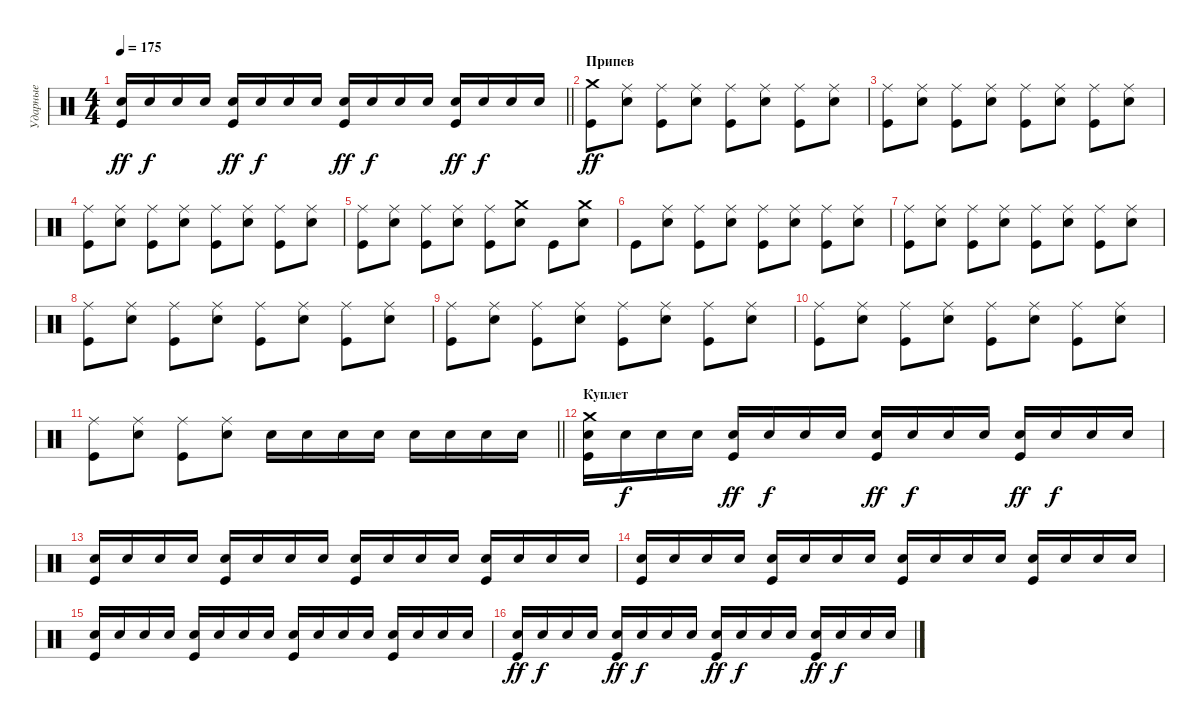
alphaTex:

\track ("Ударные" "Ударные") {instrument percussion}
\staff {score}
\articulation defaults
\ts (4 4)
\tempo 175
\clef neutral
\barLineRight lightlight
\ks c
("Electric Snare (hit)" "Kick (hit)").16{dy ff} "Electric Snare (hit)".16{dy f} "Electric Snare (hit)".16 "Electric Snare (hit)".16 ("Electric Snare (hit)" "Kick (hit)").16{dy ff} "Electric Snare (hit)".16{dy f} "Electric Snare (hit)".16 "Electric Snare (hit)".16 ("Electric Snare (hit)" "Kick (hit)").16{dy ff} "Electric Snare (hit)".16{dy f} "Electric Snare (hit)".16 "Electric Snare (hit)".16 ("Electric Snare (hit)" "Kick (hit)").16{dy ff} "Electric Snare (hit)".16{dy f} "Electric Snare (hit)".16 "Electric Snare (hit)".16 |
\section ("" "Припев")
("Crash medium (hit)" "Kick (hit)").8{dy ff} ("Ride (middle)" "Electric Snare (hit)").8 ("Ride (middle)" "Kick (hit)").8 ("Ride (middle)" "Electric Snare (hit)").8 ("Ride (middle)" "Kick (hit)").8 ("Ride (middle)" "Electric Snare (hit)").8 ("Ride (middle)" "Kick (hit)").8 ("Ride (middle)" "Electric Snare (hit)").8 |
("Ride (middle)" "Kick (hit)").8 ("Ride (middle)" "Electric Snare (hit)").8 ("Ride (middle)" "Kick (hit)").8 ("Ride (middle)" "Electric Snare (hit)").8 ("Ride (middle)" "Kick (hit)").8 ("Ride (middle)" "Electric Snare (hit)").8 ("Ride (middle)" "Kick (hit)").8 ("Ride (middle)" "Electric Snare (hit)").8 |
("Ride (middle)" "Kick (hit)").8 ("Ride (middle)" "Electric Snare (hit)").8 ("Ride (middle)" "Kick (hit)").8 ("Ride (middle)" "Electric Snare (hit)").8 ("Ride (middle)" "Kick (hit)").8 ("Ride (middle)" "Electric Snare (hit)").8 ("Ride (middle)" "Kick (hit)").8 ("Ride (middle)" "Electric Snare (hit)").8 |
("Ride (middle)" "Kick (hit)").8 ("Ride (middle)" "Electric Snare (hit)").8 ("Ride (middle)" "Kick (hit)").8 ("Ride (middle)" "Electric Snare (hit)").8 ("Ride (middle)" "Kick (hit)").8 ("Crash medium (hit)" "Electric Snare (hit)").8 "Kick (hit)".8 ("Crash medium (hit)" "Electric Snare (hit)").8 |
"Kick (hit)".8 ("Ride (middle)" "Electric Snare (hit)").8 ("Ride (middle)" "Kick (hit)").8 ("Ride (middle)" "Electric Snare (hit)").8 ("Ride (middle)" "Kick (hit)").8 ("Ride (middle)" "Electric Snare (hit)").8 ("Ride (middle)" "Kick (hit)").8 ("Ride (middle)" "Electric Snare (hit)").8 |
("Ride (middle)" "Kick (hit)").8 ("Ride (middle)" "Electric Snare (hit)").8 ("Ride (middle)" "Kick (hit)").8 ("Ride (middle)" "Electric Snare (hit)").8 ("Ride (middle)" "Kick (hit)").8 ("Ride (middle)" "Electric Snare (hit)").8 ("Ride (middle)" "Kick (hit)").8 ("Ride (middle)" "Electric Snare (hit)").8 |
("Ride (middle)" "Kick (hit)").8 ("Ride (middle)" "Electric Snare (hit)").8 ("Ride (middle)" "Kick (hit)").8 ("Ride (middle)" "Electric Snare (hit)").8 ("Ride (middle)" "Kick (hit)").8 ("Ride (middle)" "Electric Snare (hit)").8 ("Ride (middle)" "Kick (hit)").8 ("Ride (middle)" "Electric Snare (hit)").8 |
("Ride (middle)" "Kick (hit)").8 ("Ride (middle)" "Electric Snare (hit)").8 ("Ride (middle)" "Kick (hit)").8 ("Ride (middle)" "Electric Snare (hit)").8 ("Ride (middle)" "Kick (hit)").8 ("Ride (middle)" "Electric Snare (hit)").8 ("Ride (middle)" "Kick (hit)").8 ("Ride (middle)" "Electric Snare (hit)").8 |
("Ride (middle)" "Kick (hit)").8 ("Ride (middle)" "Electric Snare (hit)").8 ("Ride (middle)" "Kick (hit)").8 ("Ride (middle)" "Electric Snare (hit)").8 ("Ride (middle)" "Kick (hit)").8 ("Ride (middle)" "Electric Snare (hit)").8 ("Ride (middle)" "Kick (hit)").8 ("Ride (middle)" "Electric Snare (hit)").8 |
\barLineRight lightlight
("Ride (middle)" "Kick (hit)").8 ("Ride (middle)" "Electric Snare (hit)").8 ("Ride (middle)" "Kick (hit)").8 ("Ride (middle)" "Electric Snare (hit)").8 "Electric Snare (hit)".16 "Electric Snare (hit)".16 "Electric Snare (hit)".16 "Electric Snare (hit)".16 "Electric Snare (hit)".16 "Electric Snare (hit)".16 "Electric Snare (hit)".16 "Electric Snare (hit)".16 |
\section ("" "Куплет")
("Crash medium (hit)" "Electric Snare (hit)" "Kick (hit)").16 "Electric Snare (hit)".16{dy f} "Electric Snare (hit)".16 "Electric Snare (hit)".16 ("Electric Snare (hit)" "Kick (hit)").16{dy ff} "Electric Snare (hit)".16{dy f} "Electric Snare (hit)".16 "Electric Snare (hit)".16 ("Electric Snare (hit)" "Kick (hit)").16{dy ff} "Electric Snare (hit)".16{dy f} "Electric Snare (hit)".16 "Electric Snare (hit)".16 ("Electric Snare (hit)" "Kick (hit)").16{dy ff} "Electric Snare (hit)".16{dy f} "Electric Snare (hit)".16 "Electric Snare (hit)".16 |
("Electric Snare (hit)" "Kick (hit)").16 "Electric Snare (hit)".16 "Electric Snare (hit)".16 "Electric Snare (hit)".16 ("Electric Snare (hit)" "Kick (hit)").16 "Electric Snare (hit)".16 "Electric Snare (hit)".16 "Electric Snare (hit)".16 ("Electric Snare (hit)" "Kick (hit)").16 "Electric Snare (hit)".16 "Electric Snare (hit)".16 "Electric Snare (hit)".16 ("Electric Snare (hit)" "Kick (hit)").16 "Electric Snare (hit)".16 "Electric Snare (hit)".16 "Electric Snare (hit)".16 |
("Electric Snare (hit)" "Kick (hit)").16 "Electric Snare (hit)".16 "Electric Snare (hit)".16 "Electric Snare (hit)".16 ("Electric Snare (hit)" "Kick (hit)").16 "Electric Snare (hit)".16 "Electric Snare (hit)".16 "Electric Snare (hit)".16 ("Electric Snare (hit)" "Kick (hit)").16 "Electric Snare (hit)".16 "Electric Snare (hit)".16 "Electric Snare (hit)".16 ("Electric Snare (hit)" "Kick (hit)").16 "Electric Snare (hit)".16 "Electric Snare (hit)".16 "Electric Snare (hit)".16 |
("Electric Snare (hit)" "Kick (hit)").16 "Electric Snare (hit)".16 "Electric Snare (hit)".16 "Electric Snare (hit)".16 ("Electric Snare (hit)" "Kick (hit)").16 "Electric Snare (hit)".16 "Electric Snare (hit)".16 "Electric Snare (hit)".16 ("Electric Snare (hit)" "Kick (hit)").16 "Electric Snare (hit)".16 "Electric Snare (hit)".16 "Electric Snare (hit)".16 ("Electric Snare (hit)" "Kick (hit)").16 "Electric Snare (hit)".16 "Electric Snare (hit)".16 "Electric Snare (hit)".16 |
("Electric Snare (hit)" "Kick (hit)").16{dy ff} "Electric Snare (hit)".16{dy f} "Electric Snare (hit)".16 "Electric Snare (hit)".16 ("Electric Snare (hit)" "Kick (hit)").16{dy ff} "Electric Snare (hit)".16{dy f} "Electric Snare (hit)".16 "Electric Snare (hit)".16 ("Electric Snare (hit)" "Kick (hit)").16{dy ff} "Electric Snare (hit)".16{dy f} "Electric Snare (hit)".16 "Electric Snare (hit)".16 ("Electric Snare (hit)" "Kick (hit)").16{dy ff} "Electric Snare (hit)".16{dy f} "Electric Snare (hit)".16 "Electric Snare (hit)".16
